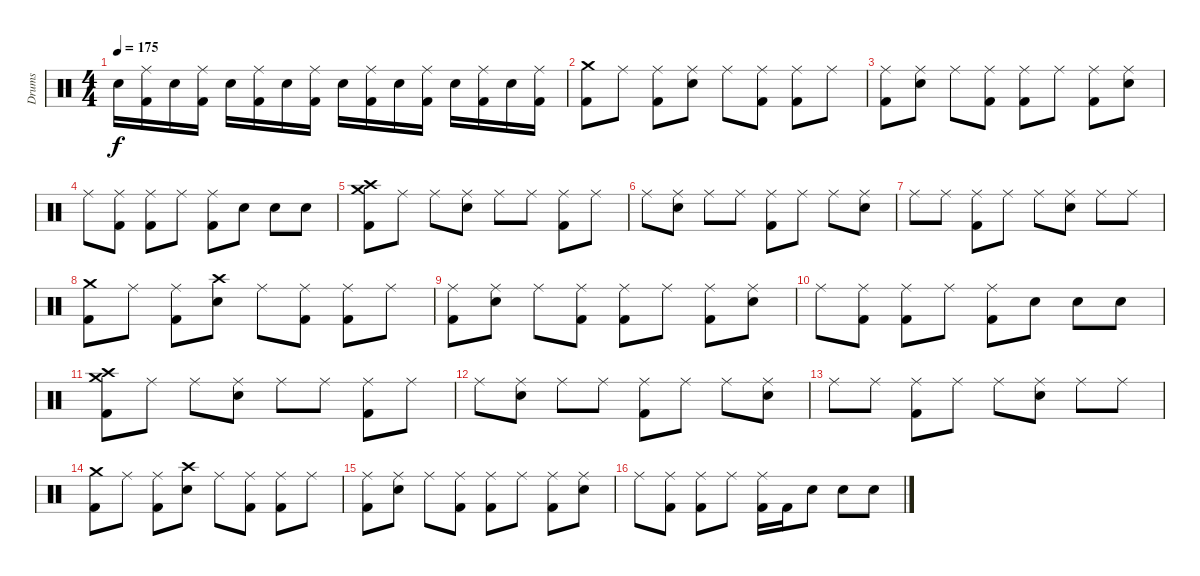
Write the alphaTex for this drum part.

\track ("Drums" "Drums") {instrument percussion}
\staff {score}
\articulation defaults
\ts (4 4)
\tempo 175
\clef neutral
\ks c "Electric Snare (hit)".16{dy f}
("Ride (middle)" "Kick (hit) 2").16 "Electric Snare (hit)".16 ("Ride (middle)" "Kick (hit) 2").16 "Electric Snare (hit)".16 ("Ride (middle)" "Kick (hit) 2").16 "Electric Snare (hit)".16 ("Ride (middle)" "Kick (hit) 2").16 "Electric Snare (hit)".16 ("Ride (middle)" "Kick (hit) 2").16 "Electric Snare (hit)".16 ("Ride (middle)" "Kick (hit) 2").16 "Electric Snare (hit)".16 ("Ride (middle)" "Kick (hit) 2").16 "Electric Snare (hit)".16 ("Ride (middle)" "Kick (hit) 2").16 |
("Crash medium (hit)" "Kick (hit) 2").8 "Ride (middle)".8 ("Ride (middle)" "Kick (hit) 2").8 ("Ride (middle)" "Electric Snare (hit)").8 "Ride (middle)".8 ("Ride (middle)" "Kick (hit) 2").8 ("Ride (middle)" "Kick (hit) 2").8 "Ride (middle)".8 |
("Ride (middle)" "Kick (hit) 2").8 ("Ride (middle)" "Electric Snare (hit)").8 "Ride (middle)".8 ("Ride (middle)" "Kick (hit) 2").8 ("Ride (middle)" "Kick (hit) 2").8 "Ride (middle)".8 ("Ride (middle)" "Kick (hit) 2").8 ("Ride (middle)" "Electric Snare (hit)").8 |
"Ride (middle)".8 ("Ride (middle)" "Kick (hit) 2").8 ("Ride (middle)" "Kick (hit) 2").8 "Ride (middle)".8 ("Ride (middle)" "Kick (hit) 2").8 "Electric Snare (hit)".8 "Electric Snare (hit)".8 "Electric Snare (hit)".8 |
("Crash medium (hit)" "Crash high (hit)" "Kick (hit) 2").8 "Ride (middle)".8 "Ride (middle)".8 ("Ride (middle)" "Electric Snare (hit)").8 "Ride (middle)".8 "Ride (middle)".8 ("Ride (middle)" "Kick (hit) 2").8 "Ride (middle)".8 |
"Ride (middle)".8 ("Ride (middle)" "Electric Snare (hit)").8 "Ride (middle)".8 "Ride (middle)".8 ("Ride (middle)" "Kick (hit) 2").8 "Ride (middle)".8 "Ride (middle)".8 ("Ride (middle)" "Electric Snare (hit)").8 |
"Ride (middle)".8 "Ride (middle)".8 ("Ride (middle)" "Kick (hit) 2").8 "Ride (middle)".8 "Ride (middle)".8 ("Ride (middle)" "Electric Snare (hit)").8 "Ride (middle)".8 "Ride (middle)".8 |
("Crash medium (hit)" "Kick (hit) 2").8 "Ride (middle)".8 ("Ride (middle)" "Kick (hit) 2").8 ("Crash high (hit)" "Electric Snare (hit)").8 "Ride (middle)".8 ("Ride (middle)" "Kick (hit) 2").8 ("Ride (middle)" "Kick (hit) 2").8 "Ride (middle)".8 |
("Ride (middle)" "Kick (hit) 2").8 ("Ride (middle)" "Electric Snare (hit)").8 "Ride (middle)".8 ("Ride (middle)" "Kick (hit) 2").8 ("Ride (middle)" "Kick (hit) 2").8 "Ride (middle)".8 ("Ride (middle)" "Kick (hit) 2").8 ("Ride (middle)" "Electric Snare (hit)").8 |
"Ride (middle)".8 ("Ride (middle)" "Kick (hit) 2").8 ("Ride (middle)" "Kick (hit) 2").8 "Ride (middle)".8 ("Ride (middle)" "Kick (hit) 2").8 "Electric Snare (hit)".8 "Electric Snare (hit)".8 "Electric Snare (hit)".8 |
("Crash medium (hit)" "Crash high (hit)" "Kick (hit) 2").8 "Ride (middle)".8 "Ride (middle)".8 ("Ride (middle)" "Electric Snare (hit)").8 "Ride (middle)".8 "Ride (middle)".8 ("Ride (middle)" "Kick (hit) 2").8 "Ride (middle)".8 |
"Ride (middle)".8 ("Ride (middle)" "Electric Snare (hit)").8 "Ride (middle)".8 "Ride (middle)".8 ("Ride (middle)" "Kick (hit) 2").8 "Ride (middle)".8 "Ride (middle)".8 ("Ride (middle)" "Electric Snare (hit)").8 |
"Ride (middle)".8 "Ride (middle)".8 ("Ride (middle)" "Kick (hit) 2").8 "Ride (middle)".8 "Ride (middle)".8 ("Ride (middle)" "Electric Snare (hit)").8 "Ride (middle)".8 "Ride (middle)".8 |
("Crash medium (hit)" "Kick (hit) 2").8 "Ride (middle)".8 ("Ride (middle)" "Kick (hit) 2").8 ("Crash high (hit)" "Electric Snare (hit)").8 "Ride (middle)".8 ("Ride (middle)" "Kick (hit) 2").8 ("Ride (middle)" "Kick (hit) 2").8 "Ride (middle)".8 |
("Ride (middle)" "Kick (hit) 2").8 ("Ride (middle)" "Electric Snare (hit)").8 "Ride (middle)".8 ("Ride (middle)" "Kick (hit) 2").8 ("Ride (middle)" "Kick (hit) 2").8 "Ride (middle)".8 ("Ride (middle)" "Kick (hit) 2").8 ("Ride (middle)" "Electric Snare (hit)").8 |
"Ride (middle)".8 ("Ride (middle)" "Kick (hit) 2").8 ("Ride (middle)" "Kick (hit) 2").8 "Ride (middle)".8 ("Ride (middle)" "Kick (hit) 2").16 "Kick (hit) 2".16 "Electric Snare (hit)".8 "Electric Snare (hit)".8 "Electric Snare (hit)".8
